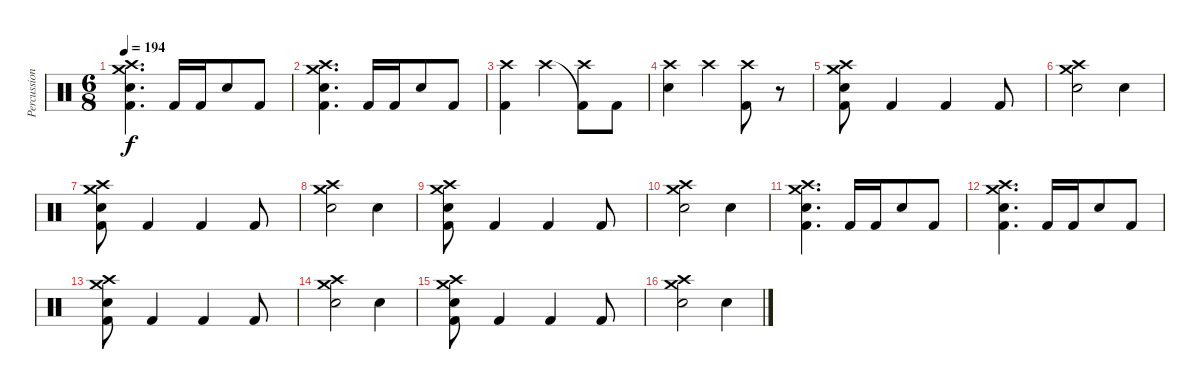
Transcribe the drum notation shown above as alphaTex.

\track ("Percussion" "Percussion") {instrument percussion}
\staff {score}
\articulation defaults
\ts (6 8)
\tempo 194
\clef neutral
\ks c
("Kick (hit) 2" "Snare (hit) 2" "Crash high (hit)" "Crash medium (hit)").4{d dy f} "Kick (hit) 2".16 "Kick (hit) 2".16 "Snare (hit) 2".8 "Kick (hit) 2".8 |
("Kick (hit) 2" "Snare (hit) 2" "Crash high (hit)" "Crash medium (hit)").4{d} "Kick (hit) 2".16 "Kick (hit) 2".16 "Snare (hit) 2".8 "Kick (hit) 2".8 |
("Kick (hit) 2" "Crash high (hit)").4 "Crash high (hit)".4 ("Kick (hit) 2"{t} "Crash high (hit)").8 "Kick (hit) 2".8 |
("Snare (hit) 2" "Crash high (hit)").4 "Crash high (hit)".4 ("Kick (hit) 2" "Crash high (hit)").8 r.8 |
("Kick (hit) 2" "Snare (hit) 2" "Crash high (hit)" "Crash medium (hit)").8 "Kick (hit) 2".4 "Kick (hit) 2".4 "Kick (hit) 2".8 |
("Snare (hit) 2" "Crash medium (hit)" "Crash high (hit)").2 "Snare (hit) 2".4 |
("Kick (hit) 2" "Snare (hit) 2" "Crash high (hit)" "Crash medium (hit)").8 "Kick (hit) 2".4 "Kick (hit) 2".4 "Kick (hit) 2".8 |
("Snare (hit) 2" "Crash medium (hit)" "Crash high (hit)").2 "Snare (hit) 2".4 |
("Kick (hit) 2" "Snare (hit) 2" "Crash high (hit)" "Crash medium (hit)").8 "Kick (hit) 2".4 "Kick (hit) 2".4 "Kick (hit) 2".8 |
("Snare (hit) 2" "Crash medium (hit)" "Crash high (hit)").2 "Snare (hit) 2".4 |
("Kick (hit) 2" "Snare (hit) 2" "Crash high (hit)" "Crash medium (hit)").4{d} "Kick (hit) 2".16 "Kick (hit) 2".16 "Snare (hit) 2".8 "Kick (hit) 2".8 |
("Kick (hit) 2" "Snare (hit) 2" "Crash high (hit)" "Crash medium (hit)").4{d} "Kick (hit) 2".16 "Kick (hit) 2".16 "Snare (hit) 2".8 "Kick (hit) 2".8 |
("Kick (hit) 2" "Snare (hit) 2" "Crash high (hit)" "Crash medium (hit)").8 "Kick (hit) 2".4 "Kick (hit) 2".4 "Kick (hit) 2".8 |
("Snare (hit) 2" "Crash medium (hit)" "Crash high (hit)").2 "Snare (hit) 2".4 |
("Kick (hit) 2" "Snare (hit) 2" "Crash high (hit)" "Crash medium (hit)").8 "Kick (hit) 2".4 "Kick (hit) 2".4 "Kick (hit) 2".8 |
("Snare (hit) 2" "Crash medium (hit)" "Crash high (hit)").2 "Snare (hit) 2".4
